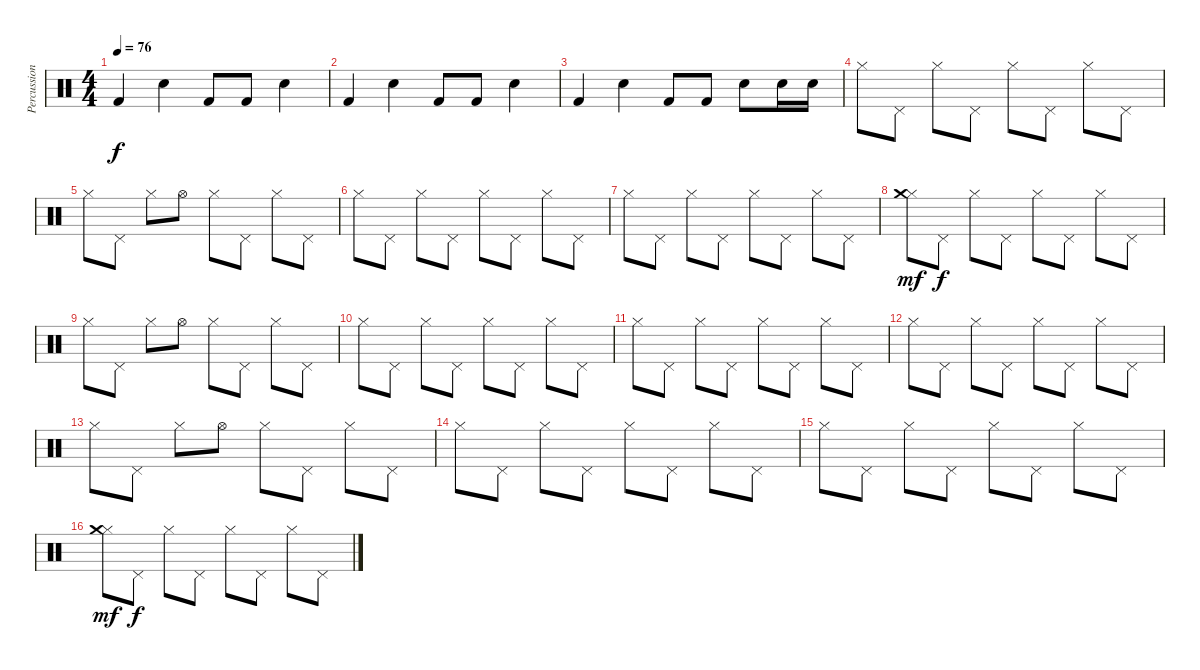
\track ("Percussion" "Percussion") {instrument percussion}
\staff {score}
\articulation defaults
\ts (4 4)
\tempo 76
\clef neutral
\ks c "Kick (hit) 2".4{dy f} "Electric Snare (hit)".4 "Kick (hit) 2".8 "Kick (hit) 2".8 "Electric Snare (hit)".4
|
"Kick (hit) 2".4 "Electric Snare (hit)".4 "Kick (hit) 2".8 "Kick (hit) 2".8 "Electric Snare (hit)".4 |
"Kick (hit) 2".4 "Electric Snare (hit)".4 "Kick (hit) 2".8 "Kick (hit) 2".8 "Electric Snare (hit)".8 "Electric Snare (hit)".16 "Electric Snare (hit)".16 |
"Hi-Hat (closed)".8 "Pedal Hi-Hat (hit)".8 "Hi-Hat (closed)".8 "Pedal Hi-Hat (hit)".8 "Hi-Hat (closed)".8 "Pedal Hi-Hat (hit)".8 "Hi-Hat (closed)".8 "Pedal Hi-Hat (hit)".8 |
"Hi-Hat (closed)".8 "Pedal Hi-Hat (hit)".8 "Hi-Hat (closed)".8 "Hi-Hat (open)".8 "Hi-Hat (closed)".8 "Pedal Hi-Hat (hit)".8 "Hi-Hat (closed)".8 "Pedal Hi-Hat (hit)".8 |
"Hi-Hat (closed)".8 "Pedal Hi-Hat (hit)".8 "Hi-Hat (closed)".8 "Pedal Hi-Hat (hit)".8 "Hi-Hat (closed)".8 "Pedal Hi-Hat (hit)".8 "Hi-Hat (closed)".8 "Pedal Hi-Hat (hit)".8 |
"Hi-Hat (closed)".8 "Pedal Hi-Hat (hit)".8 "Hi-Hat (closed)".8 "Pedal Hi-Hat (hit)".8 "Hi-Hat (closed)".8 "Pedal Hi-Hat (hit)".8 "Hi-Hat (closed)".8 "Pedal Hi-Hat (hit)".8 |
("Hi-Hat (closed)" "Crash medium (hit)").8{dy mf} "Pedal Hi-Hat (hit)".8{dy f} "Hi-Hat (closed)".8 "Pedal Hi-Hat (hit)".8 "Hi-Hat (closed)".8 "Pedal Hi-Hat (hit)".8 "Hi-Hat (closed)".8 "Pedal Hi-Hat (hit)".8 |
"Hi-Hat (closed)".8 "Pedal Hi-Hat (hit)".8 "Hi-Hat (closed)".8 "Hi-Hat (open)".8 "Hi-Hat (closed)".8 "Pedal Hi-Hat (hit)".8 "Hi-Hat (closed)".8 "Pedal Hi-Hat (hit)".8 |
"Hi-Hat (closed)".8 "Pedal Hi-Hat (hit)".8 "Hi-Hat (closed)".8 "Pedal Hi-Hat (hit)".8 "Hi-Hat (closed)".8 "Pedal Hi-Hat (hit)".8 "Hi-Hat (closed)".8 "Pedal Hi-Hat (hit)".8 |
"Hi-Hat (closed)".8 "Pedal Hi-Hat (hit)".8 "Hi-Hat (closed)".8 "Pedal Hi-Hat (hit)".8 "Hi-Hat (closed)".8 "Pedal Hi-Hat (hit)".8 "Hi-Hat (closed)".8 "Pedal Hi-Hat (hit)".8 |
"Hi-Hat (closed)".8 "Pedal Hi-Hat (hit)".8 "Hi-Hat (closed)".8 "Pedal Hi-Hat (hit)".8 "Hi-Hat (closed)".8 "Pedal Hi-Hat (hit)".8 "Hi-Hat (closed)".8 "Pedal Hi-Hat (hit)".8 |
"Hi-Hat (closed)".8 "Pedal Hi-Hat (hit)".8 "Hi-Hat (closed)".8 "Hi-Hat (open)".8 "Hi-Hat (closed)".8 "Pedal Hi-Hat (hit)".8 "Hi-Hat (closed)".8 "Pedal Hi-Hat (hit)".8 |
"Hi-Hat (closed)".8 "Pedal Hi-Hat (hit)".8 "Hi-Hat (closed)".8 "Pedal Hi-Hat (hit)".8 "Hi-Hat (closed)".8 "Pedal Hi-Hat (hit)".8 "Hi-Hat (closed)".8 "Pedal Hi-Hat (hit)".8 |
"Hi-Hat (closed)".8 "Pedal Hi-Hat (hit)".8 "Hi-Hat (closed)".8 "Pedal Hi-Hat (hit)".8 "Hi-Hat (closed)".8 "Pedal Hi-Hat (hit)".8 "Hi-Hat (closed)".8 "Pedal Hi-Hat (hit)".8 |
("Hi-Hat (closed)" "Crash medium (hit)").8{dy mf} "Pedal Hi-Hat (hit)".8{dy f} "Hi-Hat (closed)".8 "Pedal Hi-Hat (hit)".8 "Hi-Hat (closed)".8 "Pedal Hi-Hat (hit)".8 "Hi-Hat (closed)".8 "Pedal Hi-Hat (hit)".8
